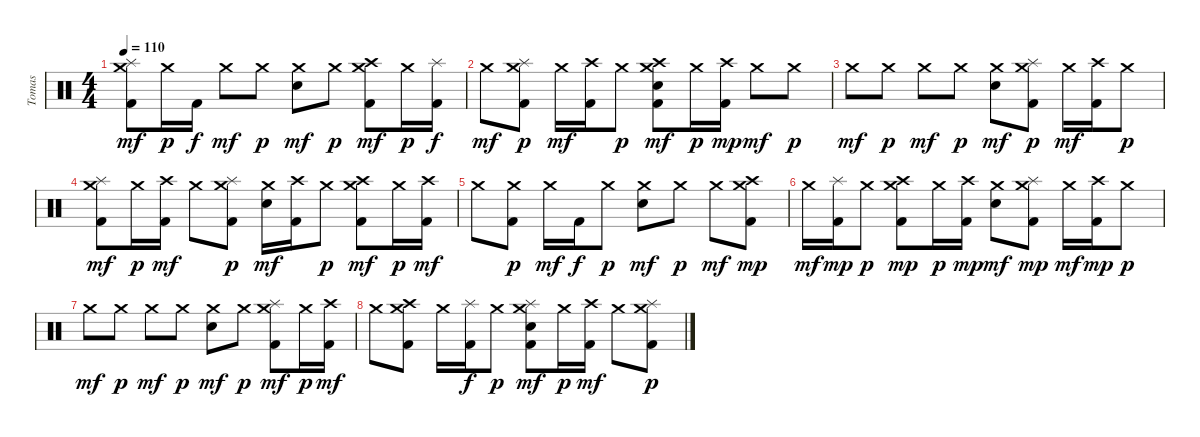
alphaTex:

\track ("Tomas" "Tomas") {instrument percussion}
\staff {score}
\articulation defaults
\ts (4 4)
\tempo 110
\clef neutral
\ks c
("Crash medium (hit)" "Splash (hit)" "Kick (hit) 2").8{dy mf} "Crash medium (hit)".16{dy p} "Kick (hit) 2".16{dy f} "Crash medium (hit)".8{dy mf} "Crash medium (hit)".8{dy p} ("Crash medium (hit)" "Electric Snare (hit)").8{dy mf} "Crash medium (hit)".8{dy p} ("Crash medium (hit)" "Crash high (hit)" "Kick (hit) 2").8{dy mf} "Crash medium (hit)".16{dy p} ("Splash (hit)" "Kick (hit) 2").16{dy f} |
"Crash medium (hit)".8{dy mf} ("Crash medium (hit)" "Splash (hit)" "Kick (hit) 2").8{dy p} "Crash medium (hit)".16{dy mf} ("Crash high (hit)" "Kick (hit) 2").16 "Crash medium (hit)".8{dy p} ("Crash medium (hit)" "Crash high (hit)" "Electric Snare (hit)" "Kick (hit) 2").8{dy mf} "Crash medium (hit)".16{dy p} ("Crash high (hit)" "Kick (hit) 2").16{dy mp} "Crash medium (hit)".8{dy mf} "Crash medium (hit)".8{dy p} |
"Crash medium (hit)".8{dy mf} "Crash medium (hit)".8{dy p} "Crash medium (hit)".8{dy mf} "Crash medium (hit)".8{dy p} ("Crash medium (hit)" "Electric Snare (hit)").8{dy mf} ("Crash medium (hit)" "Splash (hit)" "Kick (hit) 2").8{dy p} "Crash medium (hit)".16{dy mf} ("Crash high (hit)" "Kick (hit) 2").16 "Crash medium (hit)".8{dy p} |
("Crash medium (hit)" "Splash (hit)" "Kick (hit) 2").8{dy mf} "Crash medium (hit)".16{dy p} ("Crash high (hit)" "Kick (hit) 2").16{dy mf} "Crash medium (hit)".8 ("Crash medium (hit)" "Splash (hit)" "Kick (hit) 2").8{dy p} ("Crash medium (hit)" "Electric Snare (hit)").16{dy mf} ("Crash high (hit)" "Kick (hit) 2").16 "Crash medium (hit)".8{dy p} ("Crash medium (hit)" "Crash high (hit)" "Kick (hit) 2").8{dy mf} "Crash medium (hit)".16{dy p} ("Crash high (hit)" "Kick (hit) 2").16{dy mf} |
"Crash medium (hit)".8 ("Crash medium (hit)" "Kick (hit) 2").8{dy p} "Crash medium (hit)".16{dy mf} "Kick (hit) 2".16{dy f} "Crash medium (hit)".8{dy p} ("Crash medium (hit)" "Electric Snare (hit)").8{dy mf} "Crash medium (hit)".8{dy p} "Crash medium (hit)".8{dy mf} ("Crash medium (hit)" "Crash high (hit)" "Kick (hit) 2").8{dy mp} |
"Crash medium (hit)".16{dy mf} ("Splash (hit)" "Kick (hit) 2").16{dy mp} "Crash medium (hit)".8{dy p} ("Crash medium (hit)" "Crash high (hit)" "Kick (hit) 2").8{dy mp} "Crash medium (hit)".16{dy p} ("Crash high (hit)" "Kick (hit) 2").16{dy mp} ("Crash medium (hit)" "Electric Snare (hit)").8{dy mf} ("Crash medium (hit)" "Splash (hit)" "Kick (hit) 2").8{dy mp} "Crash medium (hit)".16{dy mf} ("Crash high (hit)" "Kick (hit) 2").16{dy mp} "Crash medium (hit)".8{dy p} |
"Crash medium (hit)".8{dy mf} "Crash medium (hit)".8{dy p} "Crash medium (hit)".8{dy mf} "Crash medium (hit)".8{dy p} ("Crash medium (hit)" "Electric Snare (hit)").8{dy mf} "Crash medium (hit)".8{dy p} ("Crash medium (hit)" "Splash (hit)" "Kick (hit) 2").8{dy mf} "Crash medium (hit)".16{dy p} ("Crash high (hit)" "Kick (hit) 2").16{dy mf} |
"Crash medium (hit)".8 ("Crash medium (hit)" "Crash high (hit)" "Kick (hit) 2").8 "Crash medium (hit)".16 ("Splash (hit)" "Kick (hit) 2").16{dy f} "Crash medium (hit)".8{dy p} ("Crash medium (hit)" "Splash (hit)" "Electric Snare (hit)" "Kick (hit) 2").8{dy mf} "Crash medium (hit)".16{dy p} ("Crash high (hit)" "Kick (hit) 2").16{dy mf} "Crash medium (hit)".8 ("Crash medium (hit)" "Splash (hit)" "Kick (hit) 2").8{dy p}
